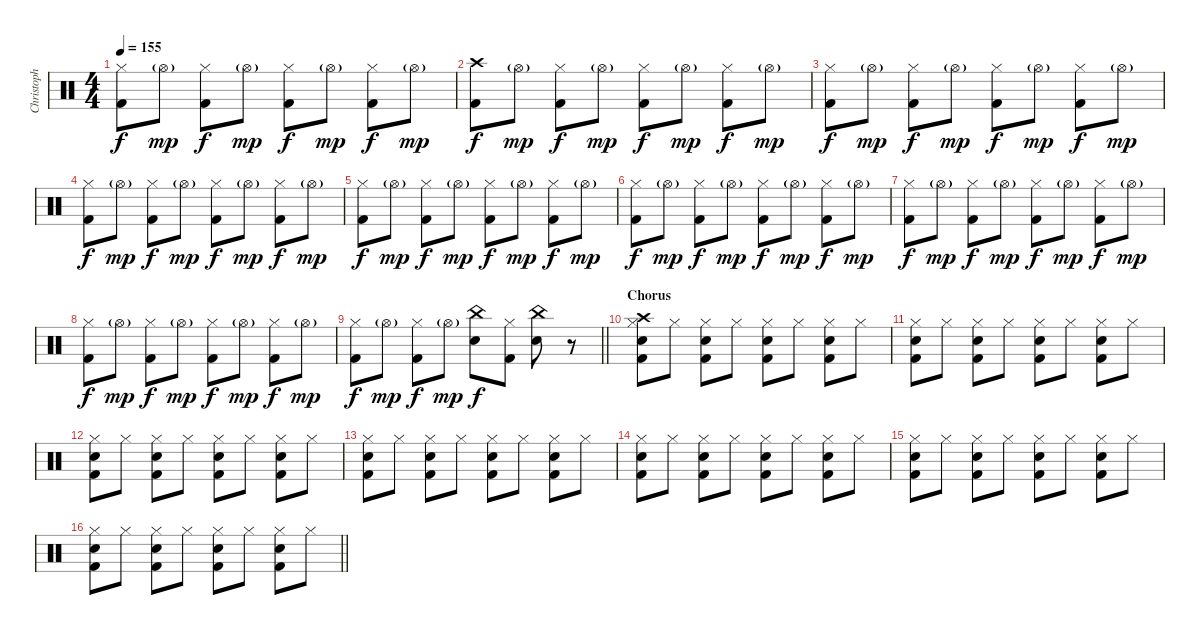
\track ("Christoph \"Doom\" Schneider" "Christoph ") {instrument percussion}
\staff {score}
\articulation defaults
\ts (4 4)
\tempo 155
\clef neutral
\ks c
("Hi-Hat (closed)" "Kick (hit) 2").8{dy f} "Hi-Hat (open)"{g}.8{dy mp} ("Hi-Hat (closed)" "Kick (hit) 2").8{dy f} "Hi-Hat (open)"{g}.8{dy mp} ("Hi-Hat (closed)" "Kick (hit) 2").8{dy f} "Hi-Hat (open)"{g}.8{dy mp} ("Hi-Hat (closed)" "Kick (hit) 2").8{dy f} "Hi-Hat (open)"{g}.8{dy mp} |
("Crash high (hit)" "Kick (hit) 2").8{dy f volume 8} "Hi-Hat (open)"{g}.8{dy mp} ("Hi-Hat (closed)" "Kick (hit) 2").8{dy f} "Hi-Hat (open)"{g}.8{dy mp} ("Hi-Hat (closed)" "Kick (hit) 2").8{dy f} "Hi-Hat (open)"{g}.8{dy mp} ("Hi-Hat (closed)" "Kick (hit) 2").8{dy f} "Hi-Hat (open)"{g}.8{dy mp} |
("Hi-Hat (closed)" "Kick (hit) 2").8{dy f} "Hi-Hat (open)"{g}.8{dy mp} ("Hi-Hat (closed)" "Kick (hit) 2").8{dy f} "Hi-Hat (open)"{g}.8{dy mp} ("Hi-Hat (closed)" "Kick (hit) 2").8{dy f} "Hi-Hat (open)"{g}.8{dy mp} ("Hi-Hat (closed)" "Kick (hit) 2").8{dy f} "Hi-Hat (open)"{g}.8{dy mp} |
("Hi-Hat (closed)" "Kick (hit) 2").8{dy f} "Hi-Hat (open)"{g}.8{dy mp} ("Hi-Hat (closed)" "Kick (hit) 2").8{dy f} "Hi-Hat (open)"{g}.8{dy mp} ("Hi-Hat (closed)" "Kick (hit) 2").8{dy f} "Hi-Hat (open)"{g}.8{dy mp} ("Hi-Hat (closed)" "Kick (hit) 2").8{dy f} "Hi-Hat (open)"{g}.8{dy mp} |
("Hi-Hat (closed)" "Kick (hit) 2").8{dy f} "Hi-Hat (open)"{g}.8{dy mp} ("Hi-Hat (closed)" "Kick (hit) 2").8{dy f} "Hi-Hat (open)"{g}.8{dy mp} ("Hi-Hat (closed)" "Kick (hit) 2").8{dy f} "Hi-Hat (open)"{g}.8{dy mp} ("Hi-Hat (closed)" "Kick (hit) 2").8{dy f} "Hi-Hat (open)"{g}.8{dy mp} |
("Hi-Hat (closed)" "Kick (hit) 2").8{dy f} "Hi-Hat (open)"{g}.8{dy mp} ("Hi-Hat (closed)" "Kick (hit) 2").8{dy f} "Hi-Hat (open)"{g}.8{dy mp} ("Hi-Hat (closed)" "Kick (hit) 2").8{dy f} "Hi-Hat (open)"{g}.8{dy mp} ("Hi-Hat (closed)" "Kick (hit) 2").8{dy f} "Hi-Hat (open)"{g}.8{dy mp} |
("Hi-Hat (closed)" "Kick (hit) 2").8{dy f} "Hi-Hat (open)"{g}.8{dy mp} ("Hi-Hat (closed)" "Kick (hit) 2").8{dy f} "Hi-Hat (open)"{g}.8{dy mp} ("Hi-Hat (closed)" "Kick (hit) 2").8{dy f} "Hi-Hat (open)"{g}.8{dy mp} ("Hi-Hat (closed)" "Kick (hit) 2").8{dy f} "Hi-Hat (open)"{g}.8{dy mp} |
("Hi-Hat (closed)" "Kick (hit) 2").8{dy f} "Hi-Hat (open)"{g}.8{dy mp} ("Hi-Hat (closed)" "Kick (hit) 2").8{dy f} "Hi-Hat (open)"{g}.8{dy mp} ("Hi-Hat (closed)" "Kick (hit) 2").8{dy f} "Hi-Hat (open)"{g}.8{dy mp} ("Hi-Hat (closed)" "Kick (hit) 2").8{dy f} "Hi-Hat (open)"{g}.8{dy mp} |
\barLineRight lightlight
("Hi-Hat (closed)" "Kick (hit) 2").8{dy f} "Hi-Hat (open)"{g}.8{dy mp} ("Hi-Hat (closed)" "Kick (hit) 2").8{dy f} "Hi-Hat (open)"{g}.8{dy mp} ("China (hit)" "Snare (hit) 2").8{dy f} ("Hi-Hat (closed)" "Kick (hit) 2").8 ("China (hit)" "Snare (hit) 2").8 r.8 |
\section ("" "Chorus")
("Crash high (hit)" "Hi-Hat (closed)" "Snare (hit) 2" "Kick (hit) 2").8 "Hi-Hat (closed)".8 ("Hi-Hat (closed)" "Snare (hit) 2" "Kick (hit) 2").8 "Hi-Hat (closed)".8 ("Hi-Hat (closed)" "Snare (hit) 2" "Kick (hit) 2").8 "Hi-Hat (closed)".8 ("Hi-Hat (closed)" "Snare (hit) 2" "Kick (hit) 2").8 "Hi-Hat (closed)".8 |
("Hi-Hat (closed)" "Snare (hit) 2" "Kick (hit) 2").8 "Hi-Hat (closed)".8 ("Hi-Hat (closed)" "Snare (hit) 2" "Kick (hit) 2").8 "Hi-Hat (closed)".8 ("Hi-Hat (closed)" "Snare (hit) 2" "Kick (hit) 2").8 "Hi-Hat (closed)".8 ("Hi-Hat (closed)" "Snare (hit) 2" "Kick (hit) 2").8 "Hi-Hat (closed)".8 |
("Hi-Hat (closed)" "Snare (hit) 2" "Kick (hit) 2").8 "Hi-Hat (closed)".8 ("Hi-Hat (closed)" "Snare (hit) 2" "Kick (hit) 2").8 "Hi-Hat (closed)".8 ("Hi-Hat (closed)" "Snare (hit) 2" "Kick (hit) 2").8 "Hi-Hat (closed)".8 ("Hi-Hat (closed)" "Snare (hit) 2" "Kick (hit) 2").8 "Hi-Hat (closed)".8 |
("Hi-Hat (closed)" "Snare (hit) 2" "Kick (hit) 2").8 "Hi-Hat (closed)".8 ("Hi-Hat (closed)" "Snare (hit) 2" "Kick (hit) 2").8 "Hi-Hat (closed)".8 ("Hi-Hat (closed)" "Snare (hit) 2" "Kick (hit) 2").8 "Hi-Hat (closed)".8 ("Hi-Hat (closed)" "Snare (hit) 2" "Kick (hit) 2").8 "Hi-Hat (closed)".8 |
("Hi-Hat (closed)" "Snare (hit) 2" "Kick (hit) 2").8 "Hi-Hat (closed)".8 ("Hi-Hat (closed)" "Snare (hit) 2" "Kick (hit) 2").8 "Hi-Hat (closed)".8 ("Hi-Hat (closed)" "Snare (hit) 2" "Kick (hit) 2").8 "Hi-Hat (closed)".8 ("Hi-Hat (closed)" "Snare (hit) 2" "Kick (hit) 2").8 "Hi-Hat (closed)".8 |
("Hi-Hat (closed)" "Snare (hit) 2" "Kick (hit) 2").8 "Hi-Hat (closed)".8 ("Hi-Hat (closed)" "Snare (hit) 2" "Kick (hit) 2").8 "Hi-Hat (closed)".8 ("Hi-Hat (closed)" "Snare (hit) 2" "Kick (hit) 2").8 "Hi-Hat (closed)".8 ("Hi-Hat (closed)" "Snare (hit) 2" "Kick (hit) 2").8 "Hi-Hat (closed)".8 |
\barLineRight lightlight
("Hi-Hat (closed)" "Snare (hit) 2" "Kick (hit) 2").8 "Hi-Hat (closed)".8 ("Hi-Hat (closed)" "Snare (hit) 2" "Kick (hit) 2").8 "Hi-Hat (closed)".8 ("Hi-Hat (closed)" "Snare (hit) 2" "Kick (hit) 2").8 "Hi-Hat (closed)".8 ("Hi-Hat (closed)" "Snare (hit) 2" "Kick (hit) 2").8 "Hi-Hat (closed)".8
